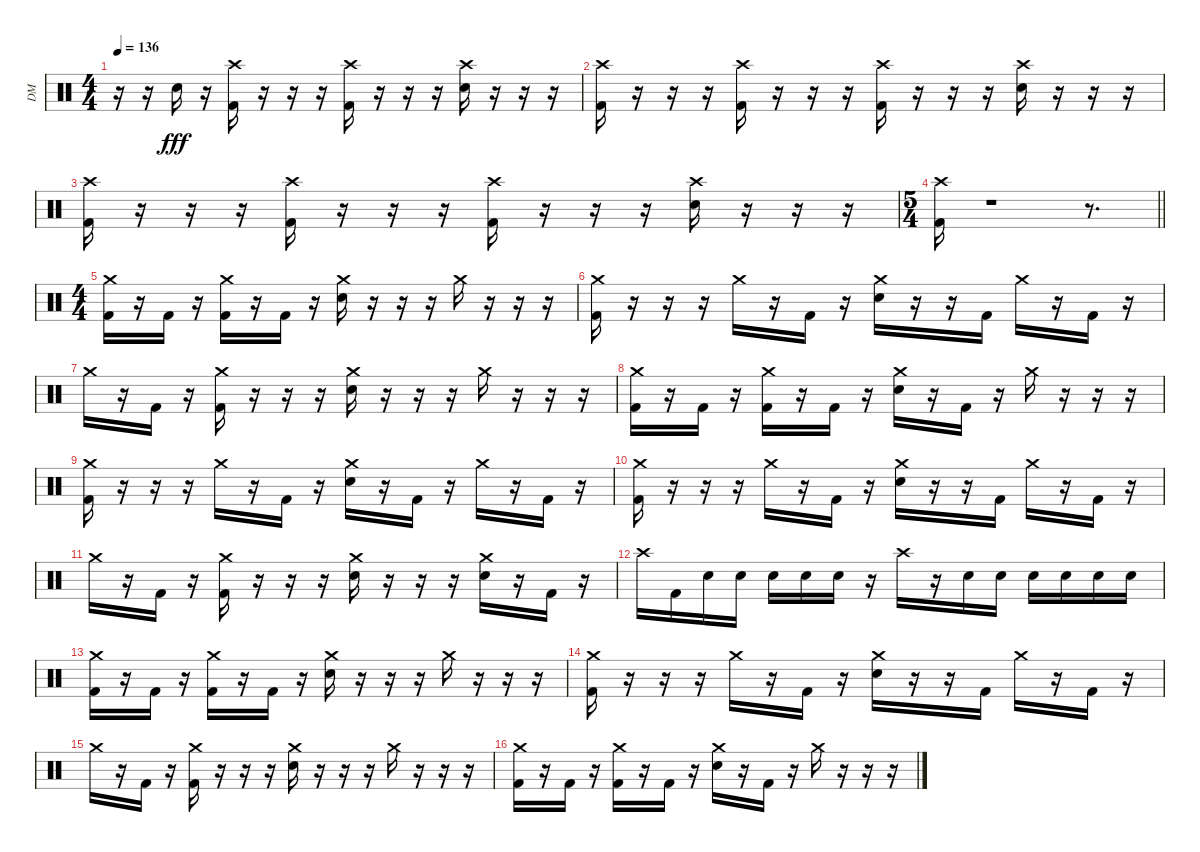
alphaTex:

\track ("DM" "DM") {instrument percussion}
\staff {score}
\articulation defaults
\ts (4 4)
\section ("" "")
\tempo 136
\clef neutral
\ks c
r.16{dy fff} r.16 "Electric Snare (hit)".16 r.16 ("Crash high (hit)" "Kick (hit) 2").16 r.16 r.16 r.16 ("Crash high (hit)" "Kick (hit) 2").16 r.16 r.16 r.16 ("Crash high (hit)" "Electric Snare (hit)").16 r.16 r.16 r.16 |
("Crash high (hit)" "Kick (hit) 2").16 r.16 r.16 r.16 ("Crash high (hit)" "Kick (hit) 2").16 r.16 r.16 r.16 ("Crash high (hit)" "Kick (hit) 2").16 r.16 r.16 r.16 ("Crash high (hit)" "Electric Snare (hit)").16 r.16 r.16 r.16 |
("Crash high (hit)" "Kick (hit) 2").16 r.16 r.16 r.16 ("Crash high (hit)" "Kick (hit) 2").16 r.16 r.16 r.16 ("Crash high (hit)" "Kick (hit) 2").16 r.16 r.16 r.16 ("Crash high (hit)" "Electric Snare (hit)").16 r.16 r.16 r.16 |
\ts (5 4)
\barLineRight lightlight
("Crash high (hit)" "Kick (hit) 2").16 r.1 r.8{d} |
\ts (4 4)
\section ("" "")
("Crash medium (hit)" "Kick (hit) 2").16 r.16 "Kick (hit) 2".16 r.16 ("Crash medium (hit)" "Kick (hit) 2").16 r.16 "Kick (hit) 2".16 r.16 ("Crash medium (hit)" "Electric Snare (hit)").16 r.16 r.16 r.16 "Crash medium (hit)".16 r.16 r.16 r.16 |
("Crash medium (hit)" "Kick (hit) 2").16 r.16 r.16 r.16 "Crash medium (hit)".16 r.16 "Kick (hit) 2".16 r.16 ("Crash medium (hit)" "Electric Snare (hit)").16 r.16 r.16 "Kick (hit) 2".16 "Crash medium (hit)".16 r.16 "Kick (hit) 2".16 r.16 |
"Crash medium (hit)".16 r.16 "Kick (hit) 2".16 r.16 ("Crash medium (hit)" "Kick (hit) 2").16 r.16 r.16 r.16 ("Crash medium (hit)" "Electric Snare (hit)").16 r.16 r.16 r.16 "Crash medium (hit)".16 r.16 r.16 r.16 |
("Crash medium (hit)" "Kick (hit) 2").16 r.16 "Kick (hit) 2".16 r.16 ("Crash medium (hit)" "Kick (hit) 2").16 r.16 "Kick (hit) 2".16 r.16 ("Crash medium (hit)" "Electric Snare (hit)").16 r.16 "Kick (hit) 2".16 r.16 "Crash medium (hit)".16 r.16 r.16 r.16 |
("Crash medium (hit)" "Kick (hit) 2").16 r.16 r.16 r.16 "Crash medium (hit)".16 r.16 "Kick (hit) 2".16 r.16 ("Crash medium (hit)" "Electric Snare (hit)").16 r.16 "Kick (hit) 2".16 r.16 "Crash medium (hit)".16 r.16 "Kick (hit) 2".16 r.16 |
("Crash medium (hit)" "Kick (hit) 2").16 r.16 r.16 r.16 "Crash medium (hit)".16 r.16 "Kick (hit) 2".16 r.16 ("Crash medium (hit)" "Electric Snare (hit)").16 r.16 r.16 "Kick (hit) 2".16 "Crash medium (hit)".16 r.16 "Kick (hit) 2".16 r.16 |
"Crash medium (hit)".16 r.16 "Kick (hit) 2".16 r.16 ("Crash medium (hit)" "Kick (hit) 2").16 r.16 r.16 r.16 ("Crash medium (hit)" "Electric Snare (hit)").16 r.16 r.16 r.16 ("Crash medium (hit)" "Electric Snare (hit)").16 r.16 "Kick (hit) 2".16 r.16 |
"Crash high (hit)".16 "Kick (hit) 2".16 "Electric Snare (hit)".16 "Electric Snare (hit)".16 "Electric Snare (hit)".16 "Electric Snare (hit)".16 "Electric Snare (hit)".16 r.16 "Crash high (hit)".16 r.16 "Electric Snare (hit)".16 "Electric Snare (hit)".16 "Electric Snare (hit)".16 "Electric Snare (hit)".16 "Electric Snare (hit)".16 "Electric Snare (hit)".16 |
("Crash medium (hit)" "Kick (hit) 2").16 r.16 "Kick (hit) 2".16 r.16 ("Crash medium (hit)" "Kick (hit) 2").16 r.16 "Kick (hit) 2".16 r.16 ("Crash medium (hit)" "Electric Snare (hit)").16 r.16 r.16 r.16 "Crash medium (hit)".16 r.16 r.16 r.16 |
("Crash medium (hit)" "Kick (hit) 2").16 r.16 r.16 r.16 "Crash medium (hit)".16 r.16 "Kick (hit) 2".16 r.16 ("Crash medium (hit)" "Electric Snare (hit)").16 r.16 r.16 "Kick (hit) 2".16 "Crash medium (hit)".16 r.16 "Kick (hit) 2".16 r.16 |
"Crash medium (hit)".16 r.16 "Kick (hit) 2".16 r.16 ("Crash medium (hit)" "Kick (hit) 2").16 r.16 r.16 r.16 ("Crash medium (hit)" "Electric Snare (hit)").16 r.16 r.16 r.16 "Crash medium (hit)".16 r.16 r.16 r.16 |
("Crash medium (hit)" "Kick (hit) 2").16 r.16 "Kick (hit) 2".16 r.16 ("Crash medium (hit)" "Kick (hit) 2").16 r.16 "Kick (hit) 2".16 r.16 ("Crash medium (hit)" "Electric Snare (hit)").16 r.16 "Kick (hit) 2".16 r.16 "Crash medium (hit)".16 r.16 r.16 r.16
